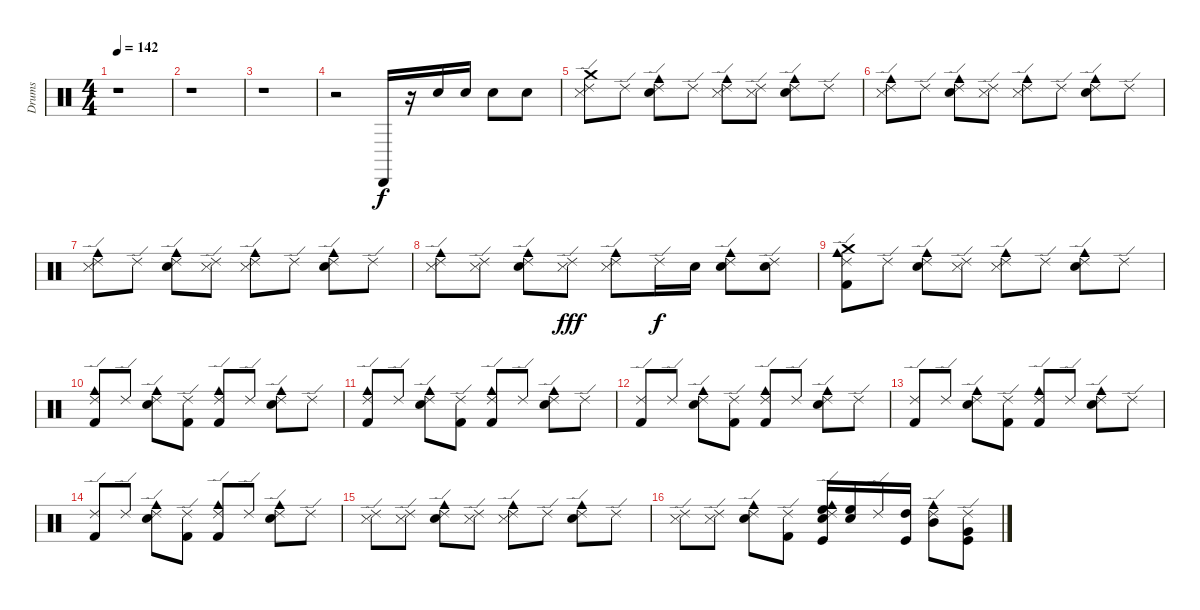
\track ("Drums" "Drums") {instrument percussion}
\staff {score}
\articulation defaults
\ts (4 4)
\tempo 142
\clef neutral
\ks c
r.1{dy f} |
r.1 |
r.1 |
r.2 "Cabasa (hit)".16{volume 16} r.16 "Snare (hit) 2".16 "Snare (hit) 2".16 "Snare (hit) 2".8 "Snare (hit) 2".8 |
("Metronome (hit)" "Crash medium (hit)" "Ride (edge) 2").8 "Ride (edge) 2".8 ("Cowbell medium (hit)" "Ride (edge) 2" "Snare (hit) 2").8 "Ride (edge) 2".8 ("Cowbell medium (hit)" "Ride (edge) 2" "Metronome (hit)").8 ("Metronome (hit)" "Ride (edge) 2").8 ("Cowbell medium (hit)" "Ride (edge) 2" "Snare (hit) 2").8 "Ride (edge) 2".8 |
("Metronome (hit)" "Cowbell medium (hit)" "Ride (edge) 2").8 "Ride (edge) 2".8 ("Cowbell medium (hit)" "Ride (edge) 2" "Snare (hit) 2").8 ("Ride (edge) 2" "Metronome (hit)").8 ("Cowbell medium (hit)" "Ride (edge) 2" "Metronome (hit)").8 "Ride (edge) 2".8 ("Cowbell medium (hit)" "Ride (edge) 2" "Snare (hit) 2").8 "Ride (edge) 2".8 |
("Metronome (hit)" "Cowbell medium (hit)" "Ride (edge) 2").8 "Ride (edge) 2".8 ("Cowbell medium (hit)" "Ride (edge) 2" "Snare (hit) 2").8 ("Ride (edge) 2" "Metronome (hit)").8 ("Cowbell medium (hit)" "Ride (edge) 2" "Metronome (hit)").8 "Ride (edge) 2".8 ("Cowbell medium (hit)" "Ride (edge) 2" "Snare (hit) 2").8 "Ride (edge) 2".8 |
("Metronome (hit)" "Cowbell medium (hit)" "Ride (edge) 2").8 ("Metronome (hit)" "Ride (edge) 2").8 ("Cowbell medium (hit)" "Ride (edge) 2" "Snare (hit) 2").8 ("Ride (edge) 2" "Metronome (hit)").8{dy fff} ("Cowbell medium (hit)" "Ride (edge) 2" "Metronome (hit)").8 "Ride (edge) 2".16{dy f} "Snare (hit) 2".16 ("Snare (hit) 2" "Cowbell medium (hit)" "Ride (edge) 2").8 ("Snare (hit) 2" "Ride (edge) 2").8 |
("Crash medium (hit)" "Cowbell medium (hit)" "Ride (edge) 2" "Kick (hit) 2").8 "Ride (edge) 2".8 ("Cowbell medium (hit)" "Ride (edge) 2" "Snare (hit) 2").8 ("Ride (edge) 2" "Metronome (hit)").8 ("Cowbell medium (hit)" "Ride (edge) 2" "Metronome (hit)").8 "Ride (edge) 2".8 ("Cowbell medium (hit)" "Ride (edge) 2" "Snare (hit) 2").8 "Ride (edge) 2".8 |
("Cowbell medium (hit)" "Ride (edge) 2" "Kick (hit) 2").8 "Ride (edge) 2".8 ("Cowbell medium (hit)" "Ride (edge) 2" "Snare (hit) 2").8 ("Ride (edge) 2" "Kick (hit) 2").8 ("Cowbell medium (hit)" "Ride (edge) 2" "Kick (hit) 2").8 "Ride (edge) 2".8 ("Cowbell medium (hit)" "Ride (edge) 2" "Snare (hit) 2").8 "Ride (edge) 2".8 |
("Cowbell medium (hit)" "Ride (edge) 2" "Kick (hit) 2").8 "Ride (edge) 2".8 ("Cowbell medium (hit)" "Ride (edge) 2" "Snare (hit) 2").8 ("Ride (edge) 2" "Kick (hit) 2").8 ("Cowbell medium (hit)" "Ride (edge) 2" "Kick (hit) 2").8 "Ride (edge) 2".8 ("Cowbell medium (hit)" "Ride (edge) 2" "Snare (hit) 2").8 "Ride (edge) 2".8 |
("Ride (edge) 2" "Kick (hit) 2").8 "Ride (edge) 2".8 ("Cowbell medium (hit)" "Ride (edge) 2" "Snare (hit) 2").8 ("Ride (edge) 2" "Kick (hit) 2").8 ("Cowbell medium (hit)" "Ride (edge) 2" "Kick (hit) 2").8 "Ride (edge) 2".8 ("Cowbell medium (hit)" "Ride (edge) 2" "Snare (hit) 2").8 "Ride (edge) 2".8 |
("Ride (edge) 2" "Kick (hit) 2").8 "Ride (edge) 2".8 ("Cowbell medium (hit)" "Ride (edge) 2" "Snare (hit) 2").8 ("Ride (edge) 2" "Kick (hit) 2").8 ("Cowbell medium (hit)" "Ride (edge) 2" "Kick (hit) 2").8 "Ride (edge) 2".8 ("Cowbell medium (hit)" "Ride (edge) 2" "Snare (hit) 2").8 "Ride (edge) 2".8 |
("Ride (edge) 2" "Kick (hit) 2").8 "Ride (edge) 2".8 ("Cowbell medium (hit)" "Ride (edge) 2" "Snare (hit) 2").8 ("Ride (edge) 2" "Kick (hit) 2").8 ("Cowbell medium (hit)" "Ride (edge) 2" "Kick (hit) 2").8 "Ride (edge) 2".8 ("Cowbell medium (hit)" "Ride (edge) 2" "Snare (hit) 2").8 "Ride (edge) 2".8 |
("Metronome (hit)" "Ride (edge) 2").8 ("Metronome (hit)" "Ride (edge) 2").8 ("Cowbell medium (hit)" "Ride (edge) 2" "Snare (hit) 2").8 ("Ride (edge) 2" "Metronome (hit)").8 ("Cowbell medium (hit)" "Ride (edge) 2" "Metronome (hit)").8 "Ride (edge) 2".8 ("Cowbell medium (hit)" "Ride (edge) 2" "Snare (hit) 2").8 "Ride (edge) 2".8 |
("Metronome (hit)" "Ride (edge) 2").8 ("Metronome (hit)" "Ride (edge) 2").8 ("Cowbell medium (hit)" "Ride (edge) 2" "Snare (hit) 2").8 ("Ride (edge) 2" "Kick (hit) 2").8 ("High Floor Tom (hit)" "Kick (hit)" "Snare (hit) 2" "Cowbell medium (hit)" "Ride (edge) 2").16 ("High Floor Tom (hit)" "Snare (hit) 2").16 "Ride (edge) 2".16 ("Kick (hit)" "High Tom (hit)").16 ("Mid Tom (hit)" "Cowbell medium (hit)" "Ride (edge) 2").8 ("Kick (hit)" "Very Low Tom (hit)" "Ride (edge) 2").8
